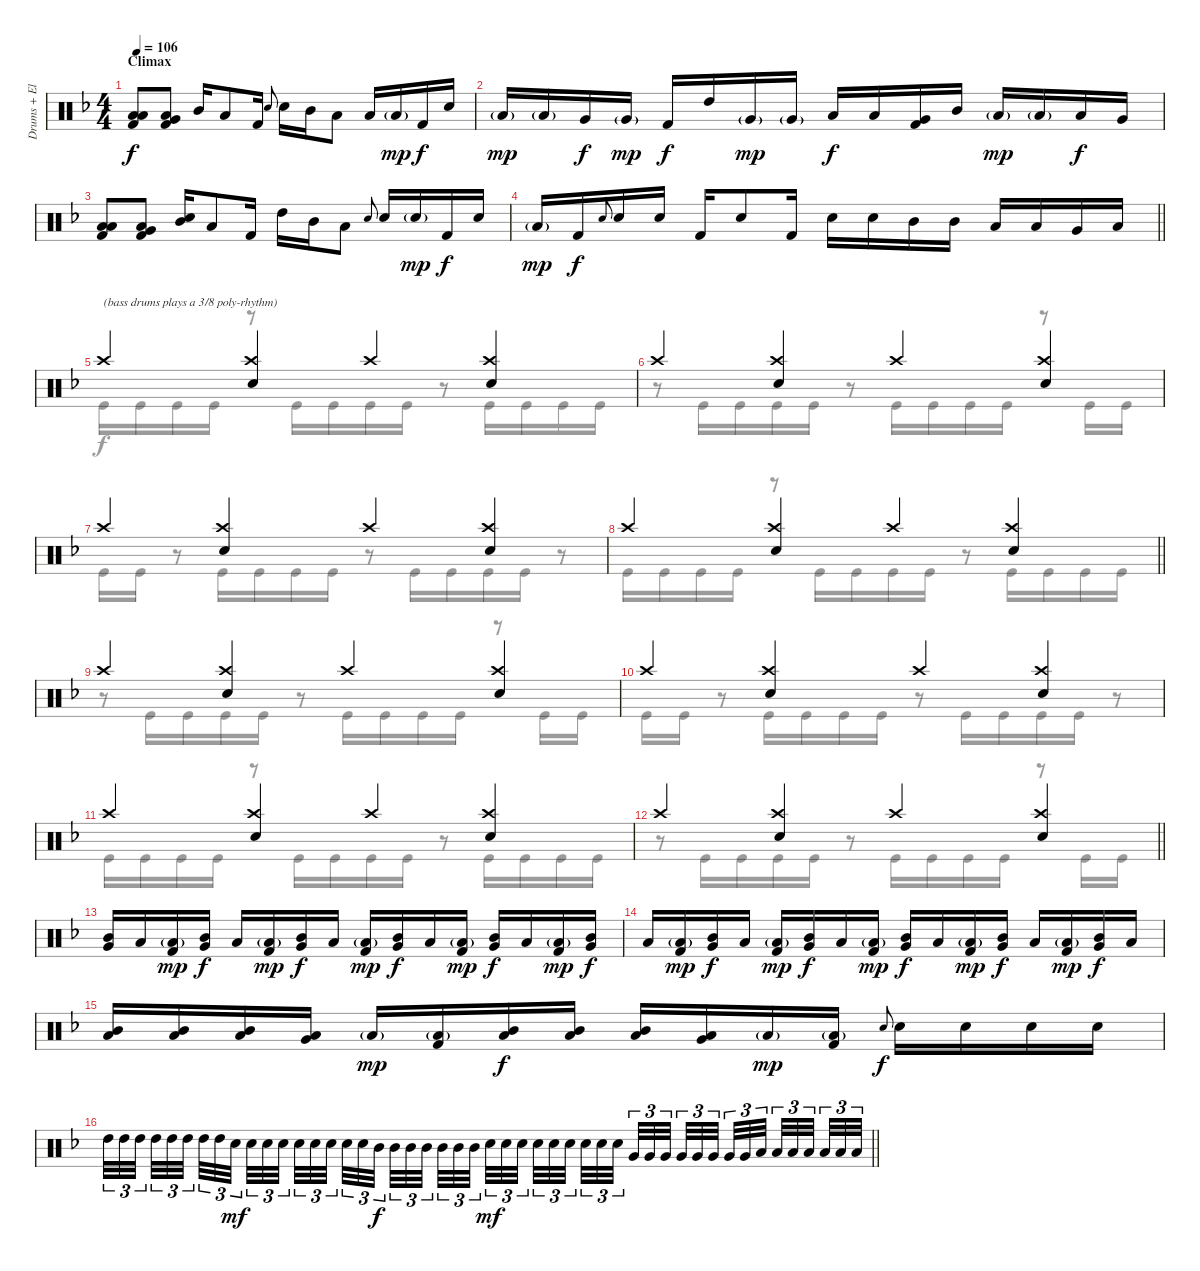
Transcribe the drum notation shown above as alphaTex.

\track ("Drums + Electronic drum pads" "Drums + El") {instrument percussion}
\staff {score}
\articulation defaults
\voice
\ts (4 4)
\section ("" "Climax")
\tempo 106
\clef neutral
\ks dminor
("Low Tom (hit)" "Low Floor Tom (hit)" "Kick (hit) 2").8{dy f} ("Very Low Tom (hit)" "Low Floor Tom (hit)" "Kick (hit) 2").8 "Mid Tom (hit)".16 "Low Tom (hit)".8 "Kick (hit) 2".16 "Snare (hit) 2".8{gr onbeat} "Snare (hit) 2".16 "Mid Tom (hit)".16 "Low Tom (hit)".8 "Low Tom (hit)".16 "Low Tom (hit)"{g}.16{dy mp} "Kick (hit) 2".16{dy f} "Snare (hit) 2".16 |
"Low Floor Tom (hit)"{g}.16{dy mp} "Low Floor Tom (hit)"{g}.16 "Very Low Tom (hit)".16{dy f} "Very Low Tom (hit)"{g}.16{dy mp} "Kick (hit) 2".16{dy f} "High Tom (hit)".16 "Very Low Tom (hit)"{g}.16{dy mp} "Very Low Tom (hit)"{g}.16 "Low Tom (hit)".16{dy f} "Low Tom (hit)".16 ("Very Low Tom (hit)" "Kick (hit) 2").16 "Mid Tom (hit)".16 "Low Floor Tom (hit)"{g}.16{dy mp} "Low Floor Tom (hit)"{g}.16 "Low Tom (hit)".16{dy f} "Very Low Tom (hit)".16 |
("Low Tom (hit)" "Low Floor Tom (hit)" "Kick (hit) 2").8 ("Very Low Tom (hit)" "Low Floor Tom (hit)" "Kick (hit) 2").8 ("Mid Tom (hit)" "Snare (hit) 2").16 "Low Tom (hit)".8 "Kick (hit) 2".16 "High Tom (hit)".16 "Mid Tom (hit)".16 "Low Tom (hit)".8 "Snare (hit) 2".8{gr onbeat} "Snare (hit) 2".16 "Snare (hit) 2"{g}.16{dy mp} "Kick (hit) 2".16{dy f} "Snare (hit) 2".16 |
\barLineRight lightlight "Low Floor Tom (hit)"{g}.16{dy mp} "Kick (hit) 2".16{dy f} "Snare (hit) 2".8{gr onbeat} "Snare (hit) 2".16 "Snare (hit) 2".16 "Kick (hit) 2".16 "Snare (hit) 2".8 "Kick (hit) 2".16 "Snare (hit) 2".16 "Snare (hit) 2".16 "Mid Tom (hit)".16 "Mid Tom (hit)".16 "Low Tom (hit)".16 "Low Tom (hit)".16 "Very Low Tom (hit)".16 "Low Floor Tom (hit)".16
|
"Crash high (hit)".4{txt "(bass drums plays a 3/8 poly-rhythm)"} ("Crash high (hit)" "Snare (hit) 2").4 "Crash high (hit)".4 ("Crash high (hit)" "Snare (hit) 2").4 |
"Crash high (hit)".4 ("Crash high (hit)" "Snare (hit) 2").4 "Crash high (hit)".4 ("Crash high (hit)" "Snare (hit) 2").4 |
"Crash high (hit)".4 ("Crash high (hit)" "Snare (hit) 2").4 "Crash high (hit)".4 ("Crash high (hit)" "Snare (hit) 2").4 |
\barLineRight lightlight "Crash high (hit)".4
("Crash high (hit)" "Snare (hit) 2").4 "Crash high (hit)".4 ("Crash high (hit)" "Snare (hit) 2").4 |
"Crash high (hit)".4 ("Crash high (hit)" "Snare (hit) 2").4 "Crash high (hit)".4 ("Crash high (hit)" "Snare (hit) 2").4 |
"Crash high (hit)".4 ("Crash high (hit)" "Snare (hit) 2").4 "Crash high (hit)".4 ("Crash high (hit)" "Snare (hit) 2").4 |
"Crash high (hit)".4 ("Crash high (hit)" "Snare (hit) 2").4 "Crash high (hit)".4 ("Crash high (hit)" "Snare (hit) 2").4 |
\barLineRight lightlight "Crash high (hit)".4
("Crash high (hit)" "Snare (hit) 2").4 "Crash high (hit)".4 ("Crash high (hit)" "Snare (hit) 2").4 |
("Mid Tom (hit)" "Very Low Tom (hit)").16 "Low Floor Tom (hit)".16 ("Low Floor Tom (hit)"{g} "Kick (hit) 2").16{dy mp} ("Mid Tom (hit)" "Very Low Tom (hit)").16{dy f} "Low Floor Tom (hit)".16 ("Low Floor Tom (hit)"{g} "Kick (hit) 2").16{dy mp} ("Mid Tom (hit)" "Very Low Tom (hit)").16{dy f} "Low Floor Tom (hit)".16 ("Low Floor Tom (hit)"{g} "Kick (hit) 2").16{dy mp} ("Mid Tom (hit)" "Very Low Tom (hit)").16{dy f} "Low Floor Tom (hit)".16 ("Low Floor Tom (hit)"{g} "Kick (hit) 2").16{dy mp} ("Mid Tom (hit)" "Very Low Tom (hit)").16{dy f} "Low Floor Tom (hit)".16 ("Low Floor Tom (hit)"{g} "Kick (hit) 2").16{dy mp} ("Mid Tom (hit)" "Very Low Tom (hit)").16{dy f} |
"Low Floor Tom (hit)".16 ("Low Floor Tom (hit)"{g} "Kick (hit) 2").16{dy mp} ("Mid Tom (hit)" "Very Low Tom (hit)").16{dy f} "Low Floor Tom (hit)".16 ("Low Floor Tom (hit)"{g} "Kick (hit) 2").16{dy mp} ("Mid Tom (hit)" "Very Low Tom (hit)").16{dy f} "Low Floor Tom (hit)".16 ("Low Floor Tom (hit)"{g} "Kick (hit) 2").16{dy mp} ("Mid Tom (hit)" "Very Low Tom (hit)").16{dy f} "Low Floor Tom (hit)".16 ("Low Floor Tom (hit)"{g} "Kick (hit) 2").16{dy mp} ("Mid Tom (hit)" "Very Low Tom (hit)").16{dy f} "Low Floor Tom (hit)".16 ("Low Floor Tom (hit)"{g} "Kick (hit) 2").16{dy mp} ("Mid Tom (hit)" "Very Low Tom (hit)").16{dy f} "Low Floor Tom (hit)".16 |
("Mid Tom (hit)" "Low Tom (hit)").16 ("Mid Tom (hit)" "Low Tom (hit)").16 ("Mid Tom (hit)" "Low Tom (hit)").16 ("Low Tom (hit)" "Very Low Tom (hit)").16 "Low Floor Tom (hit)"{g}.16{dy mp} ("Low Floor Tom (hit)"{g} "Kick (hit) 2").16 ("Mid Tom (hit)" "Low Tom (hit)").16{dy f} ("Mid Tom (hit)" "Low Tom (hit)").16 ("Mid Tom (hit)" "Low Tom (hit)").16 ("Low Tom (hit)" "Very Low Tom (hit)").16 "Low Floor Tom (hit)"{g}.16{dy mp} ("Low Floor Tom (hit)"{g} "Kick (hit) 2").16 "Snare (hit) 2".8{gr onbeat dy f} "Snare (hit) 2".16 "Snare (hit) 2".16 "Snare (hit) 2".16 "Snare (hit) 2".16 |
\barLineRight lightlight "High Tom (hit)".32{tu (3 2)} "High Tom (hit)".32{tu (3 2)} "High Tom (hit)".32{tu (3 2) beam splitsecondary} "High Tom (hit)".32{tu (3 2)} "High Tom (hit)".32{tu (3 2)} "High Tom (hit)".32{tu (3 2) beam splitsecondary} "High Tom (hit)".32{tu (3 2)} "High Tom (hit)".32{tu (3 2)} "Snare (hit) 2".32{tu (3 2) dy mf beam splitsecondary} "Snare (hit) 2".32{tu (3 2)} "Snare (hit) 2".32{tu (3 2)} "Snare (hit) 2".32{tu (3 2)} "Snare (hit) 2".32{tu (3 2)} "Snare (hit) 2".32{tu (3 2)} "Snare (hit) 2".32{tu (3 2) beam splitsecondary} "Snare (hit) 2".32{tu (3 2)} "Snare (hit) 2".32{tu (3 2)} "Mid Tom (hit)".32{tu (3 2) dy f beam splitsecondary} "Mid Tom (hit)".32{tu (3 2)} "Mid Tom (hit)".32{tu (3 2)} "Mid Tom (hit)".32{tu (3 2) beam splitsecondary} "Mid Tom (hit)".32{tu (3 2)} "Mid Tom (hit)".32{tu (3 2)} "Mid Tom (hit)".32{tu (3 2)} "Snare (hit) 2".32{tu (3 2) dy mf} "Snare (hit) 2".32{tu (3 2)} "Snare (hit) 2".32{tu (3 2) beam splitsecondary} "Snare (hit) 2".32{tu (3 2)} "Snare (hit) 2".32{tu (3 2)} "Snare (hit) 2".32{tu (3 2) beam splitsecondary} "Snare (hit) 2".32{tu (3 2)} "Snare (hit) 2".32{tu (3 2)} "Snare (hit) 2".32{tu (3 2) beam splitsecondary} "Very Low Tom (hit)".32{tu (3 2)} "Very Low Tom (hit)".32{tu (3 2)} "Very Low Tom (hit)".32{tu (3 2)} "Very Low Tom (hit)".32{tu (3 2)} "Very Low Tom (hit)".32{tu (3 2)} "Very Low Tom (hit)".32{tu (3 2) beam splitsecondary} "Very Low Tom (hit)".32{tu (3 2)} "Very Low Tom (hit)".32{tu (3 2)} "Low Floor Tom (hit)".32{tu (3 2) beam splitsecondary} "Low Floor Tom (hit)".32{tu (3 2)} "Low Floor Tom (hit)".32{tu (3 2)} "Low Floor Tom (hit)".32{tu (3 2) beam splitsecondary} "Low Floor Tom (hit)".32{tu (3 2)} "Low Floor Tom (hit)".32{tu (3 2)} "Low Floor Tom (hit)".32{tu (3 2)}
\voice
\clef neutral
\ottava regular
\simile none
\ks dminor
|
|
|
\barLineRight lightlight
|
"Kick (hit)".16{dy f} "Kick (hit)".16 "Kick (hit)".16 "Kick (hit)".16 r.8 "Kick (hit)".16 "Kick (hit)".16{beam merge} "Kick (hit)".16 "Kick (hit)".16 r.8{beam split} "Kick (hit)".16 "Kick (hit)".16{beam merge} "Kick (hit)".16 "Kick (hit)".16 |
r.8 "Kick (hit)".16 "Kick (hit)".16{beam merge} "Kick (hit)".16 "Kick (hit)".16 r.8 "Kick (hit)".16 "Kick (hit)".16 "Kick (hit)".16 "Kick (hit)".16 r.8 "Kick (hit)".16 "Kick (hit)".16 |
"Kick (hit)".16 "Kick (hit)".16 r.8 "Kick (hit)".16 "Kick (hit)".16 "Kick (hit)".16 "Kick (hit)".16 r.8 "Kick (hit)".16 "Kick (hit)".16{beam merge} "Kick (hit)".16 "Kick (hit)".16 r.8 |
\barLineRight lightlight "Kick (hit)".16 "Kick (hit)".16 "Kick (hit)".16 "Kick (hit)".16
r.8 "Kick (hit)".16 "Kick (hit)".16{beam merge} "Kick (hit)".16 "Kick (hit)".16 r.8{beam split} "Kick (hit)".16 "Kick (hit)".16{beam merge} "Kick (hit)".16 "Kick (hit)".16 |
r.8 "Kick (hit)".16 "Kick (hit)".16{beam merge} "Kick (hit)".16 "Kick (hit)".16 r.8 "Kick (hit)".16 "Kick (hit)".16 "Kick (hit)".16 "Kick (hit)".16 r.8 "Kick (hit)".16 "Kick (hit)".16 |
"Kick (hit)".16 "Kick (hit)".16 r.8 "Kick (hit)".16 "Kick (hit)".16 "Kick (hit)".16 "Kick (hit)".16 r.8 "Kick (hit)".16 "Kick (hit)".16{beam merge} "Kick (hit)".16 "Kick (hit)".16 r.8 |
"Kick (hit)".16 "Kick (hit)".16 "Kick (hit)".16 "Kick (hit)".16 r.8 "Kick (hit)".16 "Kick (hit)".16{beam merge} "Kick (hit)".16 "Kick (hit)".16 r.8{beam split} "Kick (hit)".16 "Kick (hit)".16{beam merge} "Kick (hit)".16 "Kick (hit)".16 |
\barLineRight lightlight
r.8 "Kick (hit)".16 "Kick (hit)".16{beam merge} "Kick (hit)".16 "Kick (hit)".16 r.8 "Kick (hit)".16 "Kick (hit)".16 "Kick (hit)".16 "Kick (hit)".16 r.8 "Kick (hit)".16 "Kick (hit)".16 |
|
|
|
\barLineRight lightlight
